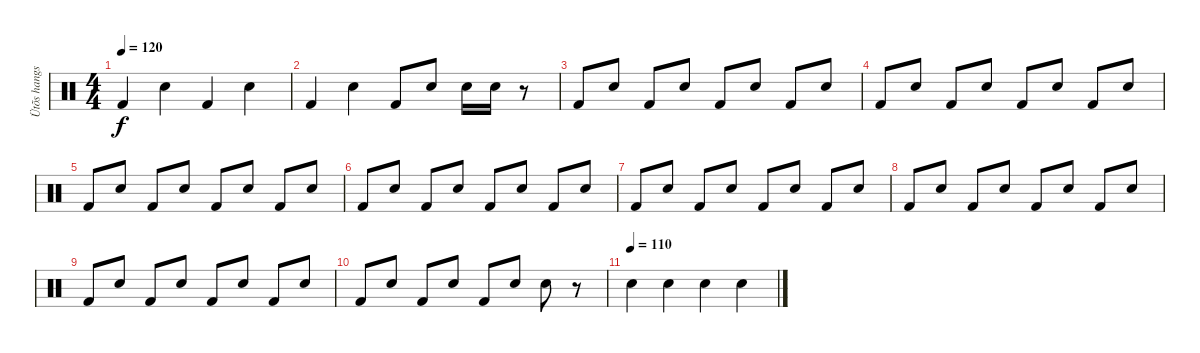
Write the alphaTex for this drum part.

\track ("Ütõs hangszer" "Ütõs hangs") {instrument percussion}
\staff {score}
\articulation defaults
\ts (4 4)
\tempo 120
\clef neutral
\ks c "Kick (hit) 2".4{dy f} "Electric Snare (hit)".4 "Kick (hit) 2".4 "Electric Snare (hit)".4
|
"Kick (hit) 2".4 "Electric Snare (hit)".4 "Kick (hit) 2".8 "Electric Snare (hit)".8 "Electric Snare (hit)".16 "Electric Snare (hit)".16 r.8 |
"Kick (hit) 2".8 "Electric Snare (hit)".8 "Kick (hit) 2".8 "Electric Snare (hit)".8 "Kick (hit) 2".8 "Electric Snare (hit)".8 "Kick (hit) 2".8 "Electric Snare (hit)".8 |
"Kick (hit) 2".8 "Electric Snare (hit)".8 "Kick (hit) 2".8 "Electric Snare (hit)".8 "Kick (hit) 2".8 "Electric Snare (hit)".8 "Kick (hit) 2".8 "Electric Snare (hit)".8 |
"Kick (hit) 2".8 "Electric Snare (hit)".8 "Kick (hit) 2".8 "Electric Snare (hit)".8 "Kick (hit) 2".8 "Electric Snare (hit)".8 "Kick (hit) 2".8 "Electric Snare (hit)".8 |
"Kick (hit) 2".8 "Electric Snare (hit)".8 "Kick (hit) 2".8 "Electric Snare (hit)".8 "Kick (hit) 2".8 "Electric Snare (hit)".8 "Kick (hit) 2".8 "Electric Snare (hit)".8 |
"Kick (hit) 2".8 "Electric Snare (hit)".8 "Kick (hit) 2".8 "Electric Snare (hit)".8 "Kick (hit) 2".8 "Electric Snare (hit)".8 "Kick (hit) 2".8 "Electric Snare (hit)".8 |
"Kick (hit) 2".8 "Electric Snare (hit)".8 "Kick (hit) 2".8 "Electric Snare (hit)".8 "Kick (hit) 2".8 "Electric Snare (hit)".8 "Kick (hit) 2".8 "Electric Snare (hit)".8 |
"Kick (hit) 2".8 "Electric Snare (hit)".8 "Kick (hit) 2".8 "Electric Snare (hit)".8 "Kick (hit) 2".8 "Electric Snare (hit)".8 "Kick (hit) 2".8 "Electric Snare (hit)".8 |
"Kick (hit) 2".8 "Electric Snare (hit)".8 "Kick (hit) 2".8 "Electric Snare (hit)".8 "Kick (hit) 2".8 "Electric Snare (hit)".8 "Electric Snare (hit)".8 r.8 |
\tempo (110)
"Electric Snare (hit)".4 "Electric Snare (hit)".4 "Electric Snare (hit)".4 "Electric Snare (hit)".4
